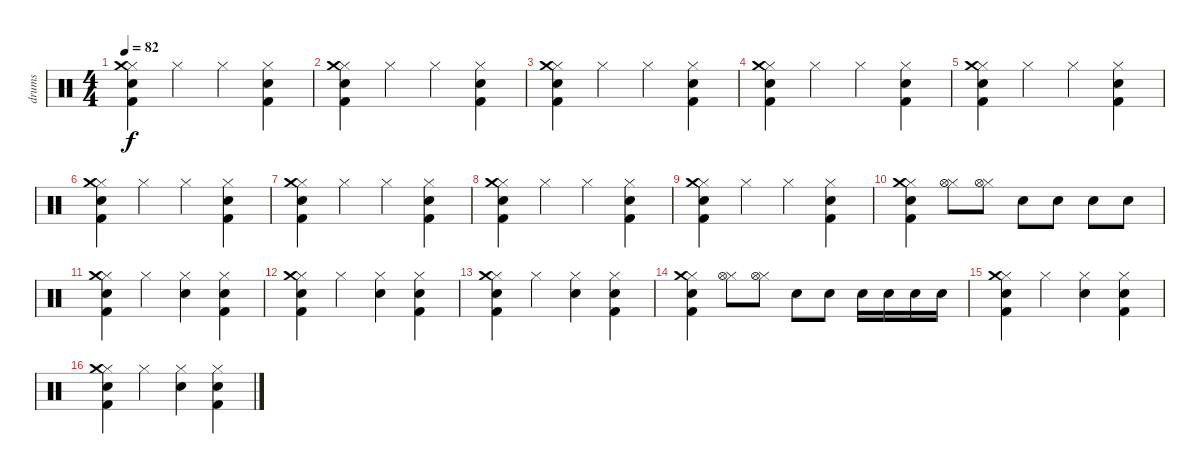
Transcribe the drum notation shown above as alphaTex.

\track ("drums" "drums") {instrument percussion}
\staff {score}
\articulation defaults
\ts (4 4)
\tempo 82
\clef neutral
\ks c
("Hi-Hat (closed)" "Snare (hit) 2" "Kick (hit) 2" "Crash medium (hit)").4{dy f} "Hi-Hat (closed)".4 "Hi-Hat (closed)".4 ("Hi-Hat (closed)" "Snare (hit) 2" "Kick (hit) 2").4 |
("Hi-Hat (closed)" "Snare (hit) 2" "Kick (hit) 2" "Crash medium (hit)").4 "Hi-Hat (closed)".4 "Hi-Hat (closed)".4 ("Hi-Hat (closed)" "Snare (hit) 2" "Kick (hit) 2").4 |
("Hi-Hat (closed)" "Snare (hit) 2" "Kick (hit) 2" "Crash medium (hit)").4 "Hi-Hat (closed)".4 "Hi-Hat (closed)".4 ("Hi-Hat (closed)" "Snare (hit) 2" "Kick (hit) 2").4 |
("Hi-Hat (closed)" "Snare (hit) 2" "Kick (hit) 2" "Crash medium (hit)").4 "Hi-Hat (closed)".4 "Hi-Hat (closed)".4 ("Hi-Hat (closed)" "Snare (hit) 2" "Kick (hit) 2").4 |
("Hi-Hat (closed)" "Snare (hit) 2" "Kick (hit) 2" "Crash medium (hit)").4 "Hi-Hat (closed)".4 "Hi-Hat (closed)".4 ("Hi-Hat (closed)" "Snare (hit) 2" "Kick (hit) 2").4 |
("Hi-Hat (closed)" "Snare (hit) 2" "Kick (hit) 2" "Crash medium (hit)").4 "Hi-Hat (closed)".4 "Hi-Hat (closed)".4 ("Hi-Hat (closed)" "Snare (hit) 2" "Kick (hit) 2").4 |
("Hi-Hat (closed)" "Snare (hit) 2" "Kick (hit) 2" "Crash medium (hit)").4 "Hi-Hat (closed)".4 "Hi-Hat (closed)".4 ("Hi-Hat (closed)" "Snare (hit) 2" "Kick (hit) 2").4 |
("Hi-Hat (closed)" "Snare (hit) 2" "Kick (hit) 2" "Crash medium (hit)").4 "Hi-Hat (closed)".4 "Hi-Hat (closed)".4 ("Hi-Hat (closed)" "Snare (hit) 2" "Kick (hit) 2").4 |
("Hi-Hat (closed)" "Snare (hit) 2" "Kick (hit) 2" "Crash medium (hit)").4 "Hi-Hat (closed)".4 "Hi-Hat (closed)".4 ("Hi-Hat (closed)" "Snare (hit) 2" "Kick (hit) 2").4 |
("Hi-Hat (closed)" "Snare (hit) 2" "Kick (hit) 2" "Crash medium (hit)").4 ("Hi-Hat (closed)" "Hi-Hat (open)").8 ("Hi-Hat (closed)" "Hi-Hat (open)").8 "Electric Snare (hit)".8 "Electric Snare (hit)".8 "Snare (hit) 2".8 "Snare (hit) 2".8 |
("Hi-Hat (closed)" "Snare (hit) 2" "Kick (hit) 2" "Crash medium (hit)").4 "Hi-Hat (closed)".4 ("Hi-Hat (closed)" "Hand Clap (hit)").4 ("Hi-Hat (closed)" "Snare (hit) 2" "Kick (hit) 2").4 |
("Hi-Hat (closed)" "Snare (hit) 2" "Kick (hit) 2" "Crash medium (hit)").4 "Hi-Hat (closed)".4 ("Hi-Hat (closed)" "Hand Clap (hit)").4 ("Hi-Hat (closed)" "Snare (hit) 2" "Kick (hit) 2").4 |
("Hi-Hat (closed)" "Snare (hit) 2" "Kick (hit) 2" "Crash medium (hit)").4 "Hi-Hat (closed)".4 ("Hi-Hat (closed)" "Hand Clap (hit)").4 ("Hi-Hat (closed)" "Snare (hit) 2" "Kick (hit) 2").4 |
("Hi-Hat (closed)" "Snare (hit) 2" "Kick (hit) 2" "Crash medium (hit)").4 ("Hi-Hat (closed)" "Hi-Hat (open)").8 ("Hi-Hat (closed)" "Hi-Hat (open)").8 "Electric Snare (hit)".8 "Electric Snare (hit)".8 "Snare (hit) 2".16 "Snare (hit) 2".16 "Snare (hit) 2".16 "Snare (hit) 2".16 |
("Hi-Hat (closed)" "Snare (hit) 2" "Kick (hit) 2" "Crash medium (hit)").4 "Hi-Hat (closed)".4 ("Hi-Hat (closed)" "Hand Clap (hit)").4 ("Hi-Hat (closed)" "Snare (hit) 2" "Kick (hit) 2").4 |
("Hi-Hat (closed)" "Snare (hit) 2" "Kick (hit) 2" "Crash medium (hit)").4 "Hi-Hat (closed)".4 ("Hi-Hat (closed)" "Hand Clap (hit)").4 ("Hi-Hat (closed)" "Snare (hit) 2" "Kick (hit) 2").4
